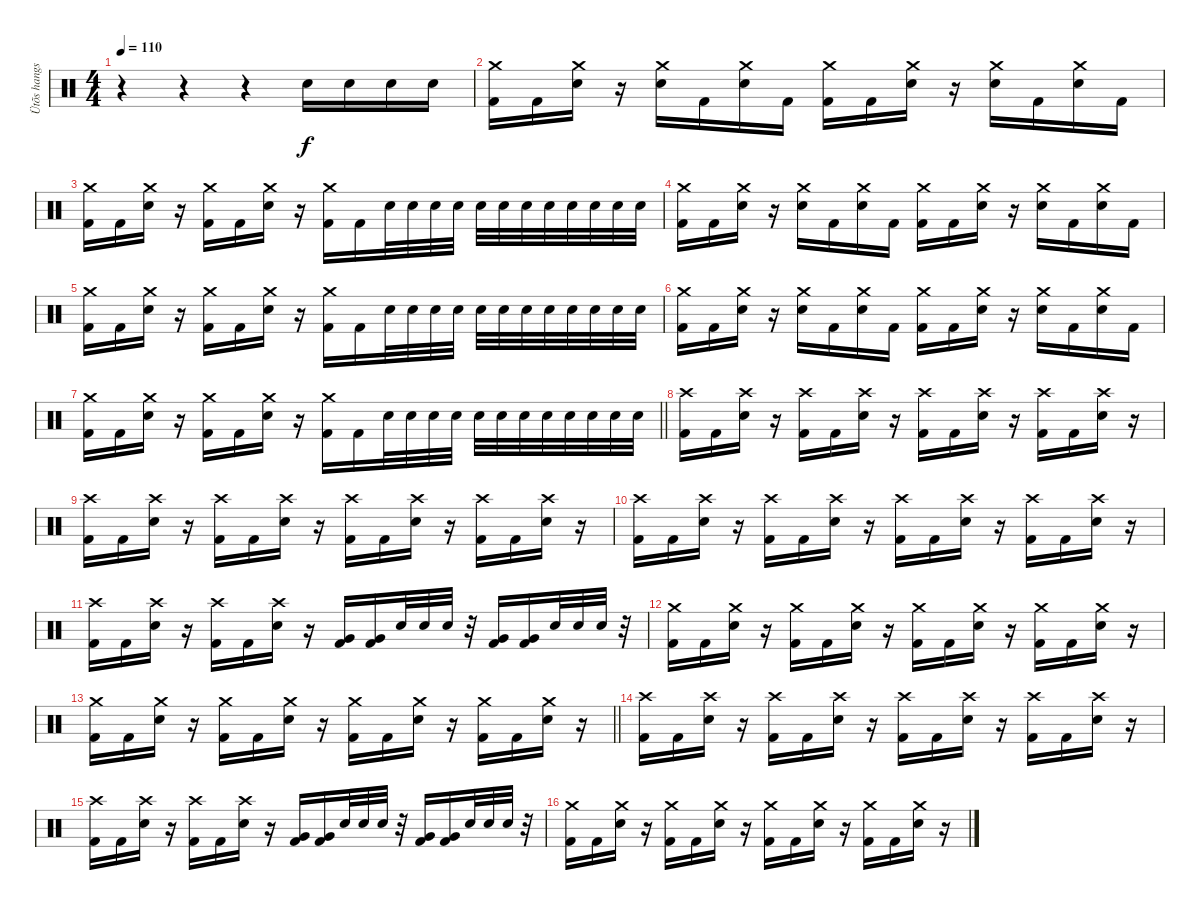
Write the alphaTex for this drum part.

\track ("Ütõs hangszer" "Ütõs hangs") {instrument percussion}
\staff {score}
\articulation defaults
\ts (4 4)
\tempo 110
\clef neutral
\ks c
r.4{dy f} r.4 r.4 "Snare (hit) 2".16 "Snare (hit) 2".16 "Snare (hit) 2".16 "Snare (hit) 2".16 |
("Crash medium (hit)" "Kick (hit) 2").16 "Kick (hit) 2".16 ("Crash medium (hit)" "Snare (hit) 2").16 r.16 ("Crash medium (hit)" "Snare (hit) 2").16 "Kick (hit) 2".16 ("Crash medium (hit)" "Snare (hit) 2").16 "Kick (hit) 2".16 ("Crash medium (hit)" "Kick (hit) 2").16 "Kick (hit) 2".16 ("Crash medium (hit)" "Snare (hit) 2").16 r.16 ("Crash medium (hit)" "Snare (hit) 2").16 "Kick (hit) 2".16 ("Crash medium (hit)" "Snare (hit) 2").16 "Kick (hit) 2".16 |
("Crash medium (hit)" "Kick (hit) 2").16 "Kick (hit) 2".16 ("Crash medium (hit)" "Snare (hit) 2").16 r.16 ("Crash medium (hit)" "Kick (hit) 2").16 "Kick (hit) 2".16 ("Crash medium (hit)" "Snare (hit) 2").16 r.16 ("Crash medium (hit)" "Kick (hit) 2").16 "Kick (hit) 2".16 "Snare (hit) 2".32 "Snare (hit) 2".32 "Snare (hit) 2".32 "Snare (hit) 2".32 "Snare (hit) 2".32 "Snare (hit) 2".32 "Snare (hit) 2".32 "Snare (hit) 2".32 "Snare (hit) 2".32 "Snare (hit) 2".32 "Snare (hit) 2".32 "Snare (hit) 2".32 |
("Crash medium (hit)" "Kick (hit) 2").16 "Kick (hit) 2".16 ("Crash medium (hit)" "Snare (hit) 2").16 r.16 ("Crash medium (hit)" "Snare (hit) 2").16 "Kick (hit) 2".16 ("Crash medium (hit)" "Snare (hit) 2").16 "Kick (hit) 2".16 ("Crash medium (hit)" "Kick (hit) 2").16 "Kick (hit) 2".16 ("Crash medium (hit)" "Snare (hit) 2").16 r.16 ("Crash medium (hit)" "Snare (hit) 2").16 "Kick (hit) 2".16 ("Crash medium (hit)" "Snare (hit) 2").16 "Kick (hit) 2".16 |
("Crash medium (hit)" "Kick (hit) 2").16 "Kick (hit) 2".16 ("Crash medium (hit)" "Snare (hit) 2").16 r.16 ("Crash medium (hit)" "Kick (hit) 2").16 "Kick (hit) 2".16 ("Crash medium (hit)" "Snare (hit) 2").16 r.16 ("Crash medium (hit)" "Kick (hit) 2").16 "Kick (hit) 2".16 "Snare (hit) 2".32 "Snare (hit) 2".32 "Snare (hit) 2".32 "Snare (hit) 2".32 "Snare (hit) 2".32 "Snare (hit) 2".32 "Snare (hit) 2".32 "Snare (hit) 2".32 "Snare (hit) 2".32 "Snare (hit) 2".32 "Snare (hit) 2".32 "Snare (hit) 2".32 |
("Crash medium (hit)" "Kick (hit) 2").16 "Kick (hit) 2".16 ("Crash medium (hit)" "Snare (hit) 2").16 r.16 ("Crash medium (hit)" "Snare (hit) 2").16 "Kick (hit) 2".16 ("Crash medium (hit)" "Snare (hit) 2").16 "Kick (hit) 2".16 ("Crash medium (hit)" "Kick (hit) 2").16 "Kick (hit) 2".16 ("Crash medium (hit)" "Snare (hit) 2").16 r.16 ("Crash medium (hit)" "Snare (hit) 2").16 "Kick (hit) 2".16 ("Crash medium (hit)" "Snare (hit) 2").16 "Kick (hit) 2".16 |
\barLineRight lightlight
("Crash medium (hit)" "Kick (hit) 2").16 "Kick (hit) 2".16 ("Crash medium (hit)" "Snare (hit) 2").16 r.16 ("Crash medium (hit)" "Kick (hit) 2").16 "Kick (hit) 2".16 ("Crash medium (hit)" "Snare (hit) 2").16 r.16 ("Crash medium (hit)" "Kick (hit) 2").16 "Kick (hit) 2".16 "Snare (hit) 2".32 "Snare (hit) 2".32 "Snare (hit) 2".32 "Snare (hit) 2".32 "Snare (hit) 2".32 "Snare (hit) 2".32 "Snare (hit) 2".32 "Snare (hit) 2".32 "Snare (hit) 2".32 "Snare (hit) 2".32 "Snare (hit) 2".32 "Snare (hit) 2".32 |
("Crash high (hit)" "Kick (hit) 2").16 "Kick (hit) 2".16 ("Crash high (hit)" "Snare (hit) 2").16 r.16 ("Crash high (hit)" "Kick (hit) 2").16 "Kick (hit) 2".16 ("Crash high (hit)" "Snare (hit) 2").16 r.16 ("Crash high (hit)" "Kick (hit) 2").16 "Kick (hit) 2".16 ("Crash high (hit)" "Snare (hit) 2").16 r.16 ("Crash high (hit)" "Kick (hit) 2").16 "Kick (hit) 2".16 ("Crash high (hit)" "Snare (hit) 2").16 r.16 |
("Crash high (hit)" "Kick (hit) 2").16 "Kick (hit) 2".16 ("Crash high (hit)" "Snare (hit) 2").16 r.16 ("Crash high (hit)" "Kick (hit) 2").16 "Kick (hit) 2".16 ("Crash high (hit)" "Snare (hit) 2").16 r.16 ("Crash high (hit)" "Kick (hit) 2").16 "Kick (hit) 2".16 ("Crash high (hit)" "Snare (hit) 2").16 r.16 ("Crash high (hit)" "Kick (hit) 2").16 "Kick (hit) 2".16 ("Crash high (hit)" "Snare (hit) 2").16 r.16 |
("Crash high (hit)" "Kick (hit) 2").16 "Kick (hit) 2".16 ("Crash high (hit)" "Snare (hit) 2").16 r.16 ("Crash high (hit)" "Kick (hit) 2").16 "Kick (hit) 2".16 ("Crash high (hit)" "Snare (hit) 2").16 r.16 ("Crash high (hit)" "Kick (hit) 2").16 "Kick (hit) 2".16 ("Crash high (hit)" "Snare (hit) 2").16 r.16 ("Crash high (hit)" "Kick (hit) 2").16 "Kick (hit) 2".16 ("Crash high (hit)" "Snare (hit) 2").16 r.16 |
("Crash high (hit)" "Kick (hit) 2").16 "Kick (hit) 2".16 ("Crash high (hit)" "Snare (hit) 2").16 r.16 ("Crash high (hit)" "Kick (hit) 2").16 "Kick (hit) 2".16 ("Crash high (hit)" "Snare (hit) 2").16 r.16 ("Very Low Tom (hit)" "Kick (hit) 2").16 ("Very Low Tom (hit)" "Kick (hit) 2").16 "Snare (hit) 2".32 "Snare (hit) 2".32 "Snare (hit) 2".32 r.32 ("Very Low Tom (hit)" "Kick (hit) 2").16 ("Very Low Tom (hit)" "Kick (hit) 2").16 "Snare (hit) 2".32 "Snare (hit) 2".32 "Snare (hit) 2".32 r.32 |
("Crash medium (hit)" "Kick (hit) 2").16 "Kick (hit) 2".16 ("Crash medium (hit)" "Snare (hit) 2").16 r.16 ("Crash medium (hit)" "Kick (hit) 2").16 "Kick (hit) 2".16 ("Crash medium (hit)" "Snare (hit) 2").16 r.16 ("Crash medium (hit)" "Kick (hit) 2").16 "Kick (hit) 2".16 ("Crash medium (hit)" "Snare (hit) 2").16 r.16 ("Crash medium (hit)" "Kick (hit) 2").16 "Kick (hit) 2".16 ("Crash medium (hit)" "Snare (hit) 2").16 r.16 |
\barLineRight lightlight
("Crash medium (hit)" "Kick (hit) 2").16 "Kick (hit) 2".16 ("Crash medium (hit)" "Snare (hit) 2").16 r.16 ("Crash medium (hit)" "Kick (hit) 2").16 "Kick (hit) 2".16 ("Crash medium (hit)" "Snare (hit) 2").16 r.16 ("Crash medium (hit)" "Kick (hit) 2").16 "Kick (hit) 2".16 ("Crash medium (hit)" "Snare (hit) 2").16 r.16 ("Crash medium (hit)" "Kick (hit) 2").16 "Kick (hit) 2".16 ("Crash medium (hit)" "Snare (hit) 2").16 r.16 |
("Crash high (hit)" "Kick (hit) 2").16 "Kick (hit) 2".16 ("Crash high (hit)" "Snare (hit) 2").16 r.16 ("Crash high (hit)" "Kick (hit) 2").16 "Kick (hit) 2".16 ("Crash high (hit)" "Snare (hit) 2").16 r.16 ("Crash high (hit)" "Kick (hit) 2").16 "Kick (hit) 2".16 ("Crash high (hit)" "Snare (hit) 2").16 r.16 ("Crash high (hit)" "Kick (hit) 2").16 "Kick (hit) 2".16 ("Crash high (hit)" "Snare (hit) 2").16 r.16 |
("Crash high (hit)" "Kick (hit) 2").16 "Kick (hit) 2".16 ("Crash high (hit)" "Snare (hit) 2").16 r.16 ("Crash high (hit)" "Kick (hit) 2").16 "Kick (hit) 2".16 ("Crash high (hit)" "Snare (hit) 2").16 r.16 ("Very Low Tom (hit)" "Kick (hit) 2").16 ("Very Low Tom (hit)" "Kick (hit) 2").16 "Snare (hit) 2".32 "Snare (hit) 2".32 "Snare (hit) 2".32 r.32 ("Very Low Tom (hit)" "Kick (hit) 2").16 ("Very Low Tom (hit)" "Kick (hit) 2").16 "Snare (hit) 2".32 "Snare (hit) 2".32 "Snare (hit) 2".32 r.32 |
("Crash medium (hit)" "Kick (hit) 2").16 "Kick (hit) 2".16 ("Crash medium (hit)" "Snare (hit) 2").16 r.16 ("Crash medium (hit)" "Kick (hit) 2").16 "Kick (hit) 2".16 ("Crash medium (hit)" "Snare (hit) 2").16 r.16 ("Crash medium (hit)" "Kick (hit) 2").16 "Kick (hit) 2".16 ("Crash medium (hit)" "Snare (hit) 2").16 r.16 ("Crash medium (hit)" "Kick (hit) 2").16 "Kick (hit) 2".16 ("Crash medium (hit)" "Snare (hit) 2").16 r.16
